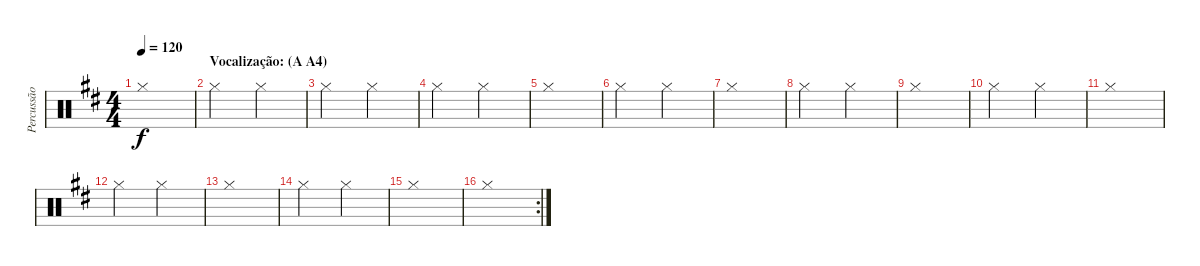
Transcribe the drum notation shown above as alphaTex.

\track ("Percussão" "Percussão") {instrument percussion}
\staff {score}
\articulation defaults
\ts (4 4)
\tempo 120
\clef neutral
\ks d "Hi-Hat (closed)".1{dy f}
|
\section ("" "Vocalização: (A A4)")
"Hi-Hat (closed)".2 "Hi-Hat (closed)".2 |
"Hi-Hat (closed)".2 "Hi-Hat (closed)".2 |
"Hi-Hat (closed)".2 "Hi-Hat (closed)".2 |
"Hi-Hat (closed)".1 |
"Hi-Hat (closed)".2 "Hi-Hat (closed)".2 |
"Hi-Hat (closed)".1 |
"Hi-Hat (closed)".2 "Hi-Hat (closed)".2 |
"Hi-Hat (closed)".1 |
"Hi-Hat (closed)".2 "Hi-Hat (closed)".2 |
"Hi-Hat (closed)".1 |
"Hi-Hat (closed)".2 "Hi-Hat (closed)".2 |
"Hi-Hat (closed)".1 |
"Hi-Hat (closed)".2 "Hi-Hat (closed)".2 |
"Hi-Hat (closed)".1 |
\rc 2 "Hi-Hat (closed)".1
